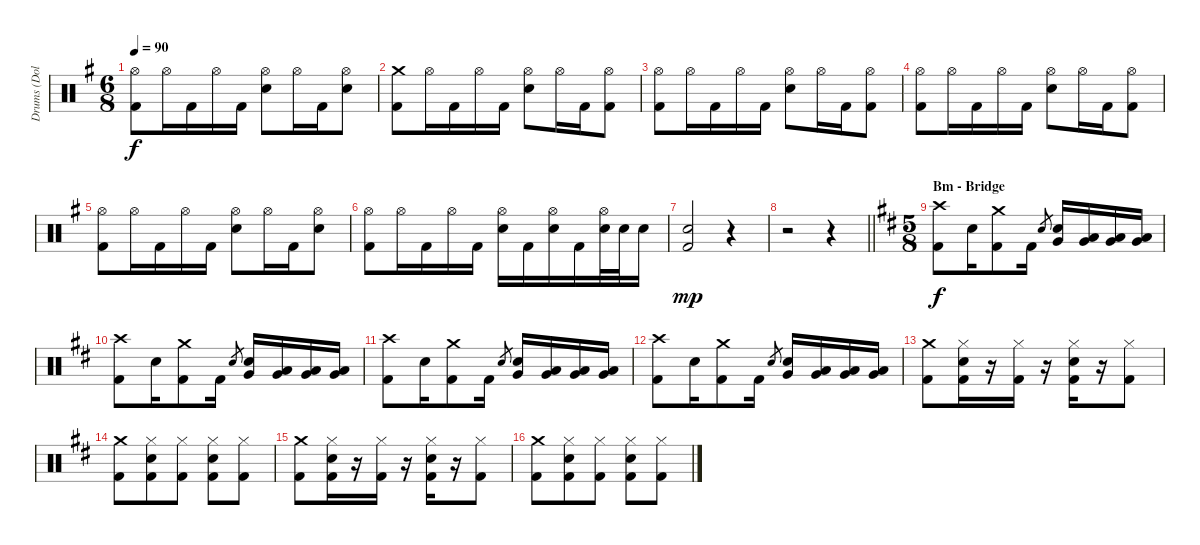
\track ("Drums (Dolmayan)" "Drums (Dol") {instrument percussion}
\staff {score}
\articulation defaults
\ts (6 8)
\tempo 90
\clef neutral
\ks eminor
("Hi-Hat (open)" "Kick (hit) 2").8{dy f} "Hi-Hat (open)".16 "Kick (hit) 2".16 "Hi-Hat (open)".16 "Kick (hit) 2".16 ("Hi-Hat (open)" "Electric Snare (hit)").8 "Hi-Hat (open)".16 "Kick (hit) 2".16 ("Hi-Hat (open)" "Electric Snare (hit)").8 |
("Crash medium (hit)" "Kick (hit) 2").8 "Hi-Hat (open)".16 "Kick (hit) 2".16 "Hi-Hat (open)".16 "Kick (hit) 2".16 ("Hi-Hat (open)" "Electric Snare (hit)").8 "Hi-Hat (open)".16 "Kick (hit) 2".16 ("Hi-Hat (open)" "Kick (hit) 2").8 |
("Hi-Hat (open)" "Kick (hit) 2").8 "Hi-Hat (open)".16 "Kick (hit) 2".16 "Hi-Hat (open)".16 "Kick (hit) 2".16 ("Hi-Hat (open)" "Electric Snare (hit)").8 "Hi-Hat (open)".16 "Kick (hit) 2".16 ("Hi-Hat (open)" "Kick (hit) 2").8 |
("Hi-Hat (open)" "Kick (hit) 2").8 "Hi-Hat (open)".16 "Kick (hit) 2".16 "Hi-Hat (open)".16 "Kick (hit) 2".16 ("Hi-Hat (open)" "Electric Snare (hit)").8 "Hi-Hat (open)".16 "Kick (hit) 2".16 ("Hi-Hat (open)" "Kick (hit) 2").8 |
("Hi-Hat (open)" "Kick (hit) 2").8 "Hi-Hat (open)".16 "Kick (hit) 2".16 "Hi-Hat (open)".16 "Kick (hit) 2".16 ("Hi-Hat (open)" "Electric Snare (hit)").8 "Hi-Hat (open)".16 "Kick (hit) 2".16 ("Hi-Hat (open)" "Electric Snare (hit)").8 |
("Hi-Hat (open)" "Kick (hit) 2").8 "Hi-Hat (open)".16 "Kick (hit) 2".16 "Hi-Hat (open)".16 "Kick (hit) 2".16 ("Hi-Hat (open)" "Electric Snare (hit)").16 "Kick (hit) 2".16 ("Hi-Hat (open)" "Electric Snare (hit)").16 "Kick (hit) 2".16 ("Hi-Hat (open)" "Electric Snare (hit)").32 "Electric Snare (hit)".32 "Electric Snare (hit)".16 |
("Electric Snare (hit)" "Kick (hit) 2").2{dy mp} r.4 |
\barLineRight lightlight
r.2 r.4 |
\ts (5 8)
\section ("" "Bm - Bridge")
\ks bminor
("Crash high (hit)" "Kick (hit) 2").8{dy f} "Electric Snare (hit)".16 ("Crash medium (hit)" "Kick (hit) 2").8 "Kick (hit) 2".16 "Electric Snare (hit)".8{gr} ("Very Low Tom (hit)" "Electric Snare (hit)").16 ("Low Tom (hit)" "Very Low Tom (hit)").16 ("Very Low Tom (hit)" "Low Floor Tom (hit)").16 ("Very Low Tom (hit)" "Low Floor Tom (hit)").16 |
("Crash high (hit)" "Kick (hit) 2").8 "Electric Snare (hit)".16 ("Crash medium (hit)" "Kick (hit) 2").8 "Kick (hit) 2".16 "Electric Snare (hit)".8{gr} ("Very Low Tom (hit)" "Electric Snare (hit)").16 ("Low Tom (hit)" "Very Low Tom (hit)").16 ("Very Low Tom (hit)" "Low Floor Tom (hit)").16 ("Very Low Tom (hit)" "Low Floor Tom (hit)").16 |
("Crash high (hit)" "Kick (hit) 2").8 "Electric Snare (hit)".16 ("Crash medium (hit)" "Kick (hit) 2").8 "Kick (hit) 2".16 "Electric Snare (hit)".8{gr} ("Very Low Tom (hit)" "Electric Snare (hit)").16 ("Low Tom (hit)" "Very Low Tom (hit)").16 ("Very Low Tom (hit)" "Low Floor Tom (hit)").16 ("Very Low Tom (hit)" "Low Floor Tom (hit)").16 |
("Crash high (hit)" "Kick (hit) 2").8 "Electric Snare (hit)".16 ("Crash medium (hit)" "Kick (hit) 2").8 "Kick (hit) 2".16 "Electric Snare (hit)".8{gr} ("Very Low Tom (hit)" "Electric Snare (hit)").16 ("Low Tom (hit)" "Very Low Tom (hit)").16 ("Very Low Tom (hit)" "Low Floor Tom (hit)").16 ("Very Low Tom (hit)" "Low Floor Tom (hit)").16 |
("Crash medium (hit)" "Kick (hit) 2").8 ("Hi-Hat (closed)" "Electric Snare (hit)" "Kick (hit) 2").16 r.16 ("Hi-Hat (closed)" "Kick (hit) 2").16 r.16 ("Hi-Hat (closed)" "Electric Snare (hit)" "Kick (hit) 2").16 r.16 ("Hi-Hat (closed)" "Kick (hit) 2").8 |
("Crash medium (hit)" "Kick (hit) 2").8 ("Hi-Hat (closed)" "Electric Snare (hit)" "Kick (hit) 2").8 ("Hi-Hat (closed)" "Kick (hit) 2").8 ("Hi-Hat (closed)" "Electric Snare (hit)" "Kick (hit) 2").8 ("Hi-Hat (closed)" "Kick (hit) 2").8 |
("Crash medium (hit)" "Kick (hit) 2").8 ("Hi-Hat (closed)" "Electric Snare (hit)" "Kick (hit) 2").16 r.16 ("Hi-Hat (closed)" "Kick (hit) 2").16 r.16 ("Hi-Hat (closed)" "Electric Snare (hit)" "Kick (hit) 2").16 r.16 ("Hi-Hat (closed)" "Kick (hit) 2").8 |
("Crash medium (hit)" "Kick (hit) 2").8 ("Hi-Hat (closed)" "Electric Snare (hit)" "Kick (hit) 2").8 ("Hi-Hat (closed)" "Kick (hit) 2").8 ("Hi-Hat (closed)" "Electric Snare (hit)" "Kick (hit) 2").8 ("Hi-Hat (closed)" "Kick (hit) 2").8
